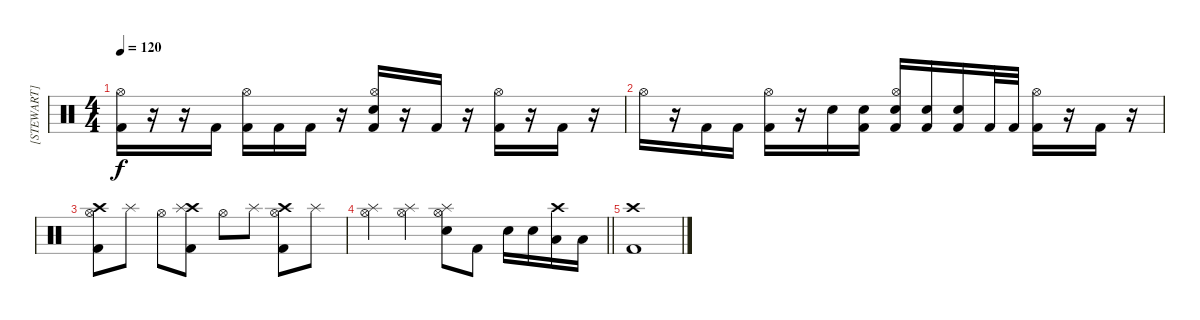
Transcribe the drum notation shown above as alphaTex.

\track ("[STEWART]" "[STEWART]") {instrument percussion}
\staff {score}
\articulation defaults
\ts (4 4)
\tempo 120
\clef neutral
\ks c
("Kick (hit) 2" "Hi-Hat (open)").16{dy f} r.16 r.16 "Kick (hit) 2".16 ("Kick (hit) 2" "Hi-Hat (open)").16 "Kick (hit) 2".16 "Kick (hit) 2".16 r.16 ("Electric Snare (hit)" "Kick (hit) 2" "Hi-Hat (open)").16 r.16 "Kick (hit) 2".16 r.16 ("Kick (hit) 2" "Hi-Hat (open)").16 r.16 "Kick (hit) 2".16 r.16 |
"Hi-Hat (open)".16 r.16 "Kick (hit) 2".16 "Kick (hit) 2".16 ("Kick (hit) 2" "Hi-Hat (open)").16 r.16 "Electric Snare (hit)".16 ("Electric Snare (hit)" "Kick (hit) 2").16 ("Electric Snare (hit)" "Kick (hit) 2" "Hi-Hat (open)").16 ("Electric Snare (hit)" "Kick (hit) 2").16 ("Electric Snare (hit)" "Kick (hit) 2").16 "Kick (hit) 2".32 "Kick (hit) 2".32 ("Kick (hit) 2" "Hi-Hat (open)").16 r.16 "Kick (hit) 2".16 r.16 |
("Crash high (hit)" "Kick (hit) 2" "Hi-Hat (open)").8 "Splash (hit)".8 "Hi-Hat (open)".8 ("Crash high (hit)" "Kick (hit) 2" "Splash (hit)").8 "Hi-Hat (open)".8 "Splash (hit)".8 ("Crash high (hit)" "Kick (hit) 2" "Hi-Hat (open)").8 "Splash (hit)".8 |
\barLineRight lightlight
("Splash (hit)" "Hi-Hat (open)").4 ("Splash (hit)" "Hi-Hat (open)").4 ("Electric Snare (hit)" "Splash (hit)" "Hi-Hat (open)").8 "Kick (hit) 2".8 "Electric Snare (hit)".16 "Electric Snare (hit)".16 ("Crash high (hit)" "Low Floor Tom (hit)").16 "Low Floor Tom (hit)".16 |
("Crash high (hit)" "Kick (hit) 2").1
